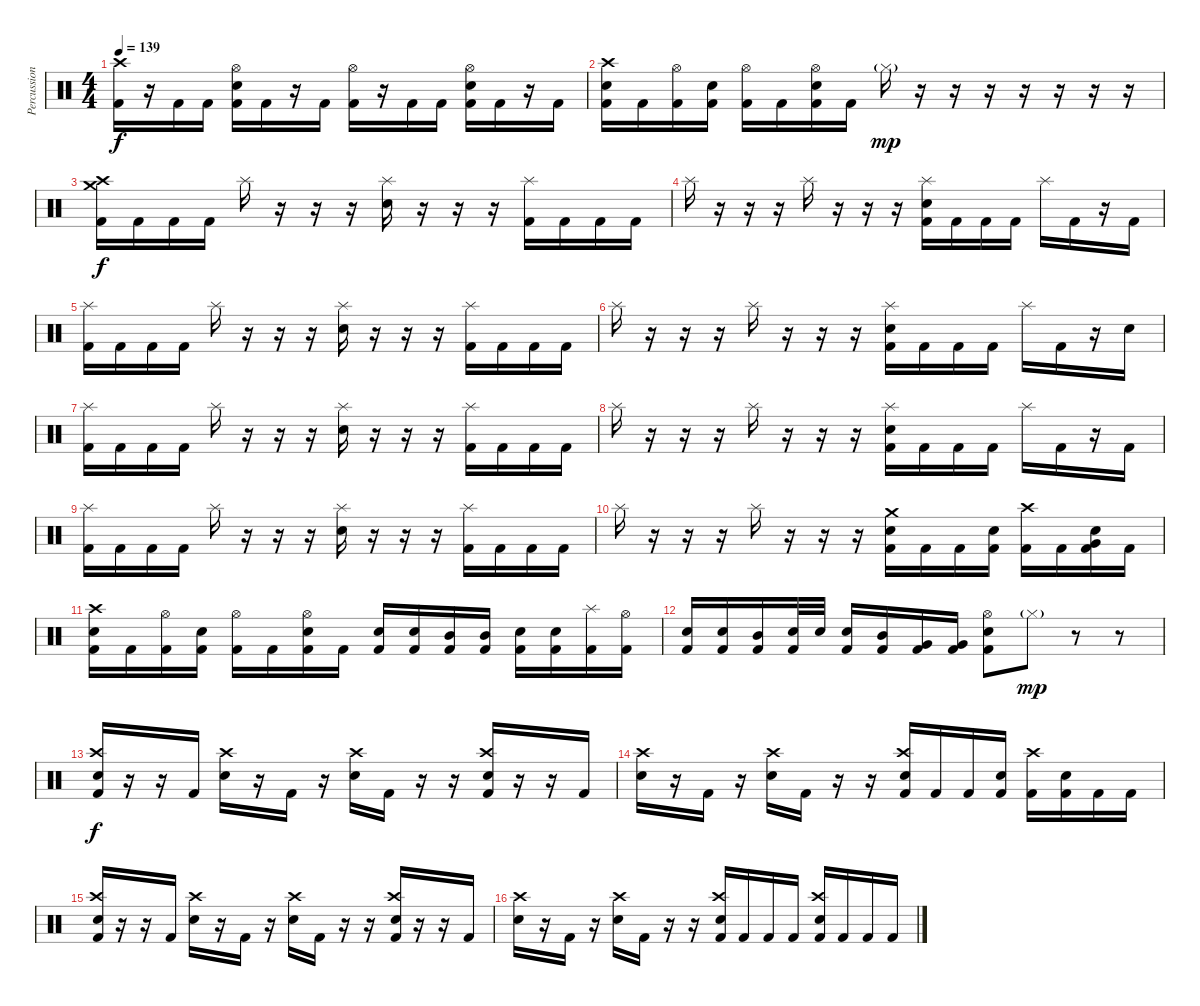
\track ("Percussion" "Percussion") {instrument percussion}
\staff {score}
\articulation defaults
\ts (4 4)
\tempo 139
\clef neutral
\ks c
("Kick (hit) 2" "Crash high (hit)").16{dy f} r.16 "Kick (hit) 2".16 "Kick (hit) 2".16 ("Kick (hit) 2" "Electric Snare (hit)" "Hi-Hat (open)").16 "Kick (hit) 2".16 r.16 "Kick (hit) 2".16 ("Kick (hit) 2" "Hi-Hat (open)").16 r.16 "Kick (hit) 2".16 "Kick (hit) 2".16 ("Kick (hit) 2" "Electric Snare (hit)" "Hi-Hat (open)").16 "Kick (hit) 2".16 r.16 "Kick (hit) 2".16 |
("Kick (hit) 2" "Electric Snare (hit)" "Crash high (hit)").16 "Kick (hit) 2".16 ("Kick (hit) 2" "Hi-Hat (open)").16 ("Kick (hit) 2" "Electric Snare (hit)").16 ("Kick (hit) 2" "Hi-Hat (open)").16 "Kick (hit) 2".16 ("Kick (hit) 2" "Electric Snare (hit)" "Hi-Hat (open)").16 "Kick (hit) 2".16 "Hi-Hat (closed)"{g}.16{dy mp} r.16 r.16 r.16 r.16 r.16 r.16 r.16 |
("Kick (hit) 2" "Crash medium (hit)" "Crash high (hit)").16{dy f} "Kick (hit) 2".16 "Kick (hit) 2".16 "Kick (hit) 2".16 "Splash (hit)".16 r.16 r.16 r.16 ("Electric Snare (hit)" "Splash (hit)").16 r.16 r.16 r.16 ("Kick (hit) 2" "Splash (hit)").16 "Kick (hit) 2".16 "Kick (hit) 2".16 "Kick (hit) 2".16 |
"Splash (hit)".16 r.16 r.16 r.16 "Splash (hit)".16 r.16 r.16 r.16 ("Kick (hit) 2" "Electric Snare (hit)" "Splash (hit)").16 "Kick (hit) 2".16 "Kick (hit) 2".16 "Kick (hit) 2".16 "Splash (hit)".16 "Kick (hit) 2".16 r.16 "Kick (hit) 2".16 |
("Kick (hit) 2" "Splash (hit)").16 "Kick (hit) 2".16 "Kick (hit) 2".16 "Kick (hit) 2".16 "Splash (hit)".16 r.16 r.16 r.16 ("Electric Snare (hit)" "Splash (hit)").16 r.16 r.16 r.16 ("Kick (hit) 2" "Splash (hit)").16 "Kick (hit) 2".16 "Kick (hit) 2".16 "Kick (hit) 2".16 |
"Splash (hit)".16 r.16 r.16 r.16 "Splash (hit)".16 r.16 r.16 r.16 ("Kick (hit) 2" "Electric Snare (hit)" "Splash (hit)").16 "Kick (hit) 2".16 "Kick (hit) 2".16 "Kick (hit) 2".16 "Splash (hit)".16 "Kick (hit) 2".16 r.16 "Electric Snare (hit)".16 |
("Kick (hit) 2" "Splash (hit)").16 "Kick (hit) 2".16 "Kick (hit) 2".16 "Kick (hit) 2".16 "Splash (hit)".16 r.16 r.16 r.16 ("Electric Snare (hit)" "Splash (hit)").16 r.16 r.16 r.16 ("Kick (hit) 2" "Splash (hit)").16 "Kick (hit) 2".16 "Kick (hit) 2".16 "Kick (hit) 2".16 |
"Splash (hit)".16 r.16 r.16 r.16 "Splash (hit)".16 r.16 r.16 r.16 ("Kick (hit) 2" "Electric Snare (hit)" "Splash (hit)").16 "Kick (hit) 2".16 "Kick (hit) 2".16 "Kick (hit) 2".16 "Splash (hit)".16 "Kick (hit) 2".16 r.16 "Kick (hit) 2".16 |
("Kick (hit) 2" "Splash (hit)").16 "Kick (hit) 2".16 "Kick (hit) 2".16 "Kick (hit) 2".16 "Splash (hit)".16 r.16 r.16 r.16 ("Electric Snare (hit)" "Splash (hit)").16 r.16 r.16 r.16 ("Kick (hit) 2" "Splash (hit)").16 "Kick (hit) 2".16 "Kick (hit) 2".16 "Kick (hit) 2".16 |
"Splash (hit)".16 r.16 r.16 r.16 "Splash (hit)".16 r.16 r.16 r.16 ("Kick (hit) 2" "Electric Snare (hit)" "Crash medium (hit)").16 "Kick (hit) 2".16 "Kick (hit) 2".16 ("Kick (hit) 2" "Electric Snare (hit)").16 ("Kick (hit) 2" "Crash high (hit)").16 "Kick (hit) 2".16 ("Kick (hit) 2" "Electric Snare (hit)" "Very Low Tom (hit)").16 "Kick (hit) 2".16 |
("Kick (hit) 2" "Electric Snare (hit)" "Crash high (hit)").16 "Kick (hit) 2".16 ("Kick (hit) 2" "Hi-Hat (open)").16 ("Kick (hit) 2" "Electric Snare (hit)").16 ("Kick (hit) 2" "Hi-Hat (open)").16 "Kick (hit) 2".16 ("Kick (hit) 2" "Electric Snare (hit)" "Hi-Hat (open)").16 "Kick (hit) 2".16 ("Kick (hit) 2" "Electric Snare (hit)").16 ("Kick (hit) 2" "Electric Snare (hit)").16 ("Kick (hit) 2" "Mid Tom (hit)").16 ("Kick (hit) 2" "Mid Tom (hit)").16 ("Kick (hit) 2" "Electric Snare (hit)").16 ("Kick (hit) 2" "Electric Snare (hit)").16 ("Kick (hit) 2" "Splash (hit)").16 ("Kick (hit) 2" "Hi-Hat (open)").16 |
("Kick (hit) 2" "Electric Snare (hit)").16 ("Kick (hit) 2" "Electric Snare (hit)").16 ("Kick (hit) 2" "Mid Tom (hit)").16 ("Kick (hit) 2" "Electric Snare (hit)").32 "Electric Snare (hit)".32 ("Kick (hit) 2" "Electric Snare (hit)").16 ("Kick (hit) 2" "Mid Tom (hit)").16 ("Kick (hit) 2" "Very Low Tom (hit)").16 ("Kick (hit) 2" "Very Low Tom (hit)").16 ("Kick (hit) 2" "Electric Snare (hit)" "Hi-Hat (open)").8 "Hi-Hat (closed)"{g}.8{dy mp} r.8 r.8 |
("Kick (hit) 2" "Electric Snare (hit)" "Crash high (hit)").16{dy f} r.16 r.16 "Kick (hit) 2".16 ("Electric Snare (hit)" "Crash high (hit)").16 r.16 "Kick (hit) 2".16 r.16 ("Electric Snare (hit)" "Crash high (hit)").16 "Kick (hit) 2".16 r.16 r.16 ("Kick (hit) 2" "Electric Snare (hit)" "Crash high (hit)").16 r.16 r.16 "Kick (hit) 2".16 |
("Electric Snare (hit)" "Crash high (hit)").16 r.16 "Kick (hit) 2".16 r.16 ("Electric Snare (hit)" "Crash high (hit)").16 "Kick (hit) 2".16 r.16 r.16 ("Kick (hit) 2" "Electric Snare (hit)" "Crash high (hit)").16 "Kick (hit) 2".16 "Kick (hit) 2".16 ("Kick (hit) 2" "Electric Snare (hit)").16 ("Kick (hit) 2" "Crash high (hit)").16 ("Kick (hit) 2" "Electric Snare (hit)").16 "Kick (hit) 2".16 "Kick (hit) 2".16 |
("Kick (hit) 2" "Electric Snare (hit)" "Crash high (hit)").16 r.16 r.16 "Kick (hit) 2".16 ("Electric Snare (hit)" "Crash high (hit)").16 r.16 "Kick (hit) 2".16 r.16 ("Electric Snare (hit)" "Crash high (hit)").16 "Kick (hit) 2".16 r.16 r.16 ("Kick (hit) 2" "Electric Snare (hit)" "Crash high (hit)").16 r.16 r.16 "Kick (hit) 2".16 |
("Electric Snare (hit)" "Crash high (hit)").16 r.16 "Kick (hit) 2".16 r.16 ("Electric Snare (hit)" "Crash high (hit)").16 "Kick (hit) 2".16 r.16 r.16 ("Kick (hit) 2" "Electric Snare (hit)" "Crash high (hit)").16 "Kick (hit) 2".16 "Kick (hit) 2".16 "Kick (hit) 2".16 ("Kick (hit) 2" "Electric Snare (hit)" "Crash high (hit)").16 "Kick (hit) 2".16 "Kick (hit) 2".16 "Kick (hit) 2".16
